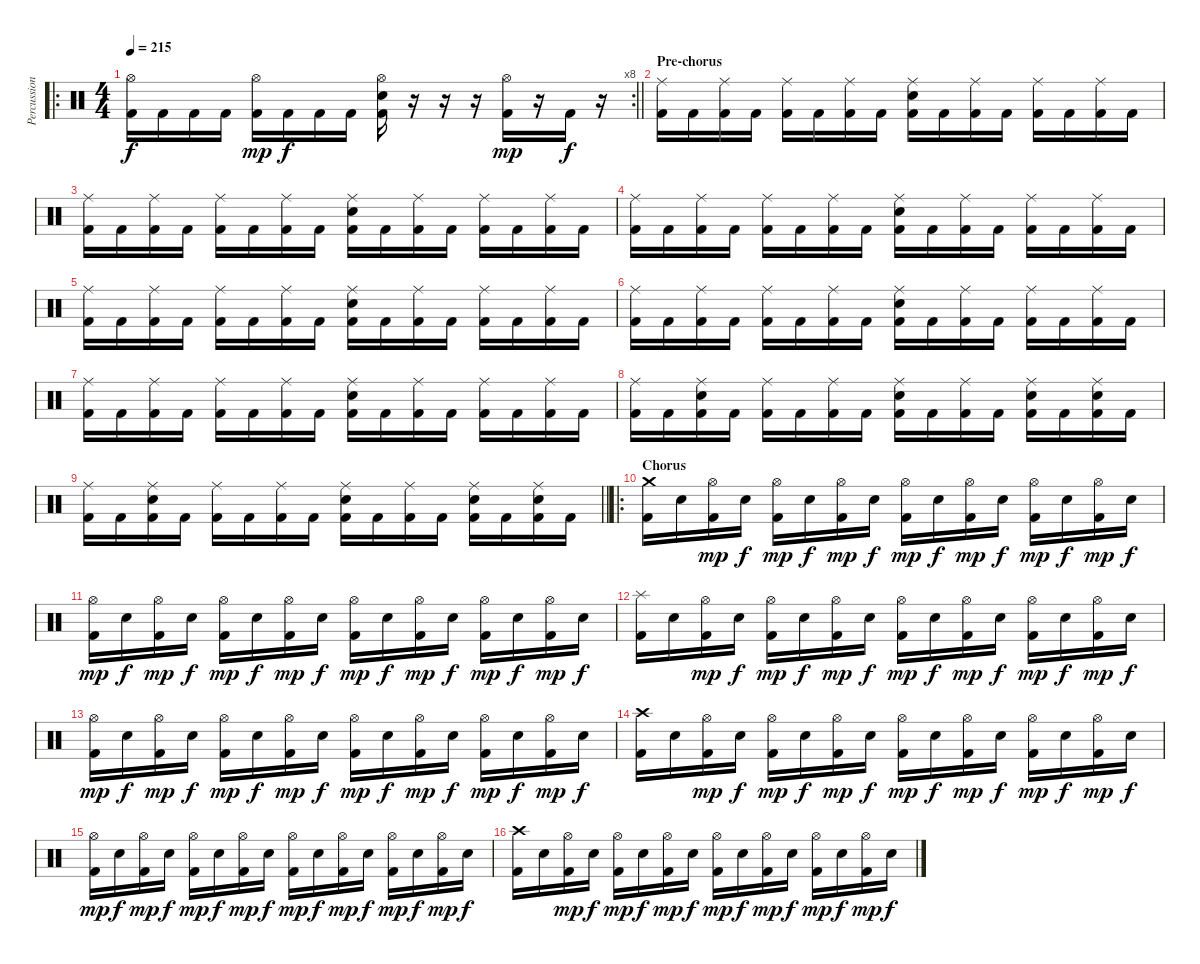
\track ("Percussion" "Percussion") {instrument percussion}
\staff {score}
\articulation defaults
\ro
\rc 8
\ts (4 4)
\tempo 215
\clef neutral
\barLineRight lightlight
\ks c
("Hi-Hat (open)" "Kick (hit) 2").16{dy f} "Kick (hit) 2".16 "Kick (hit) 2".16 "Kick (hit) 2".16 ("Hi-Hat (open)" "Kick (hit) 2").16{dy mp} "Kick (hit) 2".16{dy f} "Kick (hit) 2".16 "Kick (hit) 2".16 ("Hi-Hat (open)" "Electric Snare (hit)" "Kick (hit) 2").16 r.16 r.16 r.16 ("Hi-Hat (open)" "Kick (hit) 2").16{dy mp} r.16 "Kick (hit) 2".16{dy f} r.16 |
\section ("" "Pre-chorus")
("Ride (middle)" "Kick (hit) 2").16 "Kick (hit) 2".16 ("Ride (middle)" "Kick (hit) 2").16 "Kick (hit) 2".16 ("Ride (middle)" "Kick (hit) 2").16 "Kick (hit) 2".16 ("Ride (middle)" "Kick (hit) 2").16 "Kick (hit) 2".16 ("Ride (middle)" "Electric Snare (hit)" "Kick (hit) 2").16 "Kick (hit) 2".16 ("Ride (middle)" "Kick (hit) 2").16 "Kick (hit) 2".16 ("Ride (middle)" "Kick (hit) 2").16 "Kick (hit) 2".16 ("Ride (middle)" "Kick (hit) 2").16 "Kick (hit) 2".16 |
("Ride (middle)" "Kick (hit) 2").16 "Kick (hit) 2".16 ("Ride (middle)" "Kick (hit) 2").16 "Kick (hit) 2".16 ("Ride (middle)" "Kick (hit) 2").16 "Kick (hit) 2".16 ("Ride (middle)" "Kick (hit) 2").16 "Kick (hit) 2".16 ("Ride (middle)" "Electric Snare (hit)" "Kick (hit) 2").16 "Kick (hit) 2".16 ("Ride (middle)" "Kick (hit) 2").16 "Kick (hit) 2".16 ("Ride (middle)" "Kick (hit) 2").16 "Kick (hit) 2".16 ("Ride (middle)" "Kick (hit) 2").16 "Kick (hit) 2".16 |
("Ride (middle)" "Kick (hit) 2").16 "Kick (hit) 2".16 ("Ride (middle)" "Kick (hit) 2").16 "Kick (hit) 2".16 ("Ride (middle)" "Kick (hit) 2").16 "Kick (hit) 2".16 ("Ride (middle)" "Kick (hit) 2").16 "Kick (hit) 2".16 ("Ride (middle)" "Electric Snare (hit)" "Kick (hit) 2").16 "Kick (hit) 2".16 ("Ride (middle)" "Kick (hit) 2").16 "Kick (hit) 2".16 ("Ride (middle)" "Kick (hit) 2").16 "Kick (hit) 2".16 ("Ride (middle)" "Kick (hit) 2").16 "Kick (hit) 2".16 |
("Ride (middle)" "Kick (hit) 2").16 "Kick (hit) 2".16 ("Ride (middle)" "Kick (hit) 2").16 "Kick (hit) 2".16 ("Ride (middle)" "Kick (hit) 2").16 "Kick (hit) 2".16 ("Ride (middle)" "Kick (hit) 2").16 "Kick (hit) 2".16 ("Ride (middle)" "Electric Snare (hit)" "Kick (hit) 2").16 "Kick (hit) 2".16 ("Ride (middle)" "Kick (hit) 2").16 "Kick (hit) 2".16 ("Ride (middle)" "Kick (hit) 2").16 "Kick (hit) 2".16 ("Ride (middle)" "Kick (hit) 2").16 "Kick (hit) 2".16 |
("Ride (middle)" "Kick (hit) 2").16 "Kick (hit) 2".16 ("Ride (middle)" "Kick (hit) 2").16 "Kick (hit) 2".16 ("Ride (middle)" "Kick (hit) 2").16 "Kick (hit) 2".16 ("Ride (middle)" "Kick (hit) 2").16 "Kick (hit) 2".16 ("Ride (middle)" "Electric Snare (hit)" "Kick (hit) 2").16 "Kick (hit) 2".16 ("Ride (middle)" "Kick (hit) 2").16 "Kick (hit) 2".16 ("Ride (middle)" "Kick (hit) 2").16 "Kick (hit) 2".16 ("Ride (middle)" "Kick (hit) 2").16 "Kick (hit) 2".16 |
("Ride (middle)" "Kick (hit) 2").16 "Kick (hit) 2".16 ("Ride (middle)" "Kick (hit) 2").16 "Kick (hit) 2".16 ("Ride (middle)" "Kick (hit) 2").16 "Kick (hit) 2".16 ("Ride (middle)" "Kick (hit) 2").16 "Kick (hit) 2".16 ("Ride (middle)" "Electric Snare (hit)" "Kick (hit) 2").16 "Kick (hit) 2".16 ("Ride (middle)" "Kick (hit) 2").16 "Kick (hit) 2".16 ("Ride (middle)" "Kick (hit) 2").16 "Kick (hit) 2".16 ("Ride (middle)" "Kick (hit) 2").16 "Kick (hit) 2".16 |
("Ride (middle)" "Kick (hit) 2").16 "Kick (hit) 2".16 ("Ride (middle)" "Electric Snare (hit)" "Kick (hit) 2").16 "Kick (hit) 2".16 ("Ride (middle)" "Kick (hit) 2").16 "Kick (hit) 2".16 ("Ride (middle)" "Kick (hit) 2").16 "Kick (hit) 2".16 ("Ride (middle)" "Electric Snare (hit)" "Kick (hit) 2").16 "Kick (hit) 2".16 ("Ride (middle)" "Kick (hit) 2").16 "Kick (hit) 2".16 ("Ride (middle)" "Electric Snare (hit)" "Kick (hit) 2").16 "Kick (hit) 2".16 ("Ride (middle)" "Electric Snare (hit)" "Kick (hit) 2").16 "Kick (hit) 2".16 |
\barLineRight lightlight
("Ride (middle)" "Kick (hit) 2").16 "Kick (hit) 2".16 ("Ride (middle)" "Electric Snare (hit)" "Kick (hit) 2").16 "Kick (hit) 2".16 ("Ride (middle)" "Kick (hit) 2").16 "Kick (hit) 2".16 ("Ride (middle)" "Kick (hit) 2").16 "Kick (hit) 2".16 ("Ride (middle)" "Electric Snare (hit)" "Kick (hit) 2").16 "Kick (hit) 2".16 ("Ride (middle)" "Kick (hit) 2").16 "Kick (hit) 2".16 ("Ride (middle)" "Electric Snare (hit)" "Kick (hit) 2").16 "Kick (hit) 2".16 ("Ride (middle)" "Electric Snare (hit)" "Kick (hit) 2").16 "Kick (hit) 2".16 |
\ro
\section ("" "Chorus ")
("Crash medium (hit)" "Kick (hit) 2").16 "Electric Snare (hit)".16 ("Hi-Hat (open)" "Kick (hit) 2").16{dy mp} "Electric Snare (hit)".16{dy f} ("Hi-Hat (open)" "Kick (hit) 2").16{dy mp} "Electric Snare (hit)".16{dy f} ("Hi-Hat (open)" "Kick (hit) 2").16{dy mp} "Electric Snare (hit)".16{dy f} ("Hi-Hat (open)" "Kick (hit) 2").16{dy mp} "Electric Snare (hit)".16{dy f} ("Hi-Hat (open)" "Kick (hit) 2").16{dy mp} "Electric Snare (hit)".16{dy f} ("Hi-Hat (open)" "Kick (hit) 2").16{dy mp} "Electric Snare (hit)".16{dy f} ("Hi-Hat (open)" "Kick (hit) 2").16{dy mp} "Electric Snare (hit)".16{dy f} |
("Hi-Hat (open)" "Kick (hit) 2").16{dy mp} "Electric Snare (hit)".16{dy f} ("Hi-Hat (open)" "Kick (hit) 2").16{dy mp} "Electric Snare (hit)".16{dy f} ("Hi-Hat (open)" "Kick (hit) 2").16{dy mp} "Electric Snare (hit)".16{dy f} ("Hi-Hat (open)" "Kick (hit) 2").16{dy mp} "Electric Snare (hit)".16{dy f} ("Hi-Hat (open)" "Kick (hit) 2").16{dy mp} "Electric Snare (hit)".16{dy f} ("Hi-Hat (open)" "Kick (hit) 2").16{dy mp} "Electric Snare (hit)".16{dy f} ("Hi-Hat (open)" "Kick (hit) 2").16{dy mp} "Electric Snare (hit)".16{dy f} ("Hi-Hat (open)" "Kick (hit) 2").16{dy mp} "Electric Snare (hit)".16{dy f} |
("Splash (hit)" "Kick (hit) 2").16 "Electric Snare (hit)".16 ("Hi-Hat (open)" "Kick (hit) 2").16{dy mp} "Electric Snare (hit)".16{dy f} ("Hi-Hat (open)" "Kick (hit) 2").16{dy mp} "Electric Snare (hit)".16{dy f} ("Hi-Hat (open)" "Kick (hit) 2").16{dy mp} "Electric Snare (hit)".16{dy f} ("Hi-Hat (open)" "Kick (hit) 2").16{dy mp} "Electric Snare (hit)".16{dy f} ("Hi-Hat (open)" "Kick (hit) 2").16{dy mp} "Electric Snare (hit)".16{dy f} ("Hi-Hat (open)" "Kick (hit) 2").16{dy mp} "Electric Snare (hit)".16{dy f} ("Hi-Hat (open)" "Kick (hit) 2").16{dy mp} "Electric Snare (hit)".16{dy f} |
("Hi-Hat (open)" "Kick (hit) 2").16{dy mp} "Electric Snare (hit)".16{dy f} ("Hi-Hat (open)" "Kick (hit) 2").16{dy mp} "Electric Snare (hit)".16{dy f} ("Hi-Hat (open)" "Kick (hit) 2").16{dy mp} "Electric Snare (hit)".16{dy f} ("Hi-Hat (open)" "Kick (hit) 2").16{dy mp} "Electric Snare (hit)".16{dy f} ("Hi-Hat (open)" "Kick (hit) 2").16{dy mp} "Electric Snare (hit)".16{dy f} ("Hi-Hat (open)" "Kick (hit) 2").16{dy mp} "Electric Snare (hit)".16{dy f} ("Hi-Hat (open)" "Kick (hit) 2").16{dy mp} "Electric Snare (hit)".16{dy f} ("Hi-Hat (open)" "Kick (hit) 2").16{dy mp} "Electric Snare (hit)".16{dy f} |
("Crash high (hit)" "Kick (hit) 2").16 "Electric Snare (hit)".16 ("Hi-Hat (open)" "Kick (hit) 2").16{dy mp} "Electric Snare (hit)".16{dy f} ("Hi-Hat (open)" "Kick (hit) 2").16{dy mp} "Electric Snare (hit)".16{dy f} ("Hi-Hat (open)" "Kick (hit) 2").16{dy mp} "Electric Snare (hit)".16{dy f} ("Hi-Hat (open)" "Kick (hit) 2").16{dy mp} "Electric Snare (hit)".16{dy f} ("Hi-Hat (open)" "Kick (hit) 2").16{dy mp} "Electric Snare (hit)".16{dy f} ("Hi-Hat (open)" "Kick (hit) 2").16{dy mp} "Electric Snare (hit)".16{dy f} ("Hi-Hat (open)" "Kick (hit) 2").16{dy mp} "Electric Snare (hit)".16{dy f} |
("Hi-Hat (open)" "Kick (hit) 2").16{dy mp} "Electric Snare (hit)".16{dy f} ("Hi-Hat (open)" "Kick (hit) 2").16{dy mp} "Electric Snare (hit)".16{dy f} ("Hi-Hat (open)" "Kick (hit) 2").16{dy mp} "Electric Snare (hit)".16{dy f} ("Hi-Hat (open)" "Kick (hit) 2").16{dy mp} "Electric Snare (hit)".16{dy f} ("Hi-Hat (open)" "Kick (hit) 2").16{dy mp} "Electric Snare (hit)".16{dy f} ("Hi-Hat (open)" "Kick (hit) 2").16{dy mp} "Electric Snare (hit)".16{dy f} ("Hi-Hat (open)" "Kick (hit) 2").16{dy mp} "Electric Snare (hit)".16{dy f} ("Hi-Hat (open)" "Kick (hit) 2").16{dy mp} "Electric Snare (hit)".16{dy f} |
("Crash high (hit)" "Kick (hit) 2").16 "Electric Snare (hit)".16 ("Hi-Hat (open)" "Kick (hit) 2").16{dy mp} "Electric Snare (hit)".16{dy f} ("Hi-Hat (open)" "Kick (hit) 2").16{dy mp} "Electric Snare (hit)".16{dy f} ("Hi-Hat (open)" "Kick (hit) 2").16{dy mp} "Electric Snare (hit)".16{dy f} ("Hi-Hat (open)" "Kick (hit) 2").16{dy mp} "Electric Snare (hit)".16{dy f} ("Hi-Hat (open)" "Kick (hit) 2").16{dy mp} "Electric Snare (hit)".16{dy f} ("Hi-Hat (open)" "Kick (hit) 2").16{dy mp} "Electric Snare (hit)".16{dy f} ("Hi-Hat (open)" "Kick (hit) 2").16{dy mp} "Electric Snare (hit)".16{dy f}
